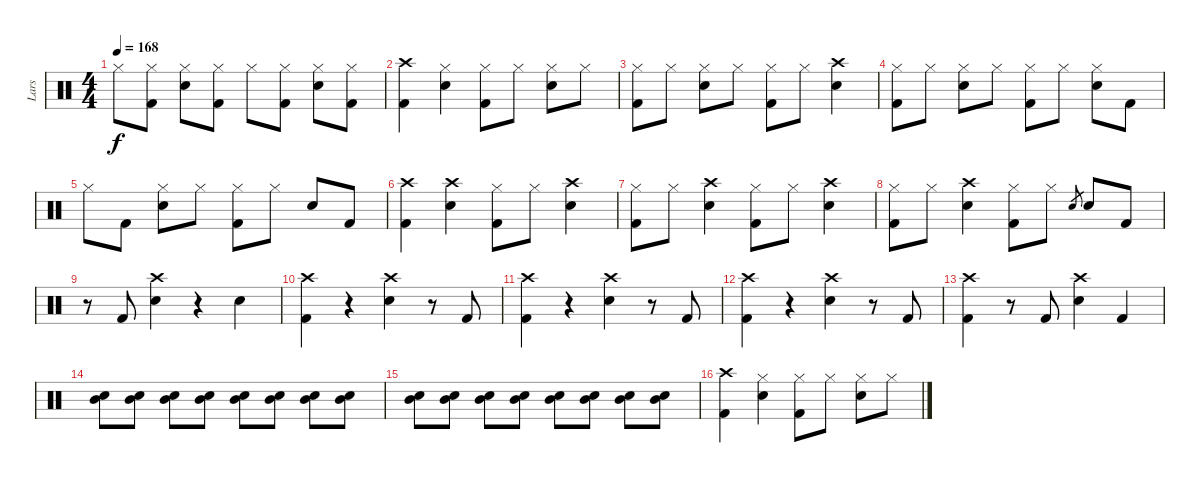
\track ("Lars" "Lars") {instrument percussion}
\staff {score}
\articulation defaults
\ts (4 4)
\tempo 168
\clef neutral
\ks c "Hi-Hat (closed)".8{dy f}
("Hi-Hat (closed)" "Kick (hit) 2").8 ("Hi-Hat (closed)" "Snare (hit) 2").8 ("Hi-Hat (closed)" "Kick (hit) 2").8 "Hi-Hat (closed)".8 ("Hi-Hat (closed)" "Kick (hit) 2").8 ("Hi-Hat (closed)" "Snare (hit) 2").8 ("Hi-Hat (closed)" "Kick (hit) 2").8 |
("Crash high (hit)" "Kick (hit) 2").4 ("Hi-Hat (closed)" "Snare (hit) 2").4 ("Hi-Hat (closed)" "Kick (hit) 2").8 "Hi-Hat (closed)".8 ("Hi-Hat (closed)" "Snare (hit) 2").8 "Hi-Hat (closed)".8 |
("Hi-Hat (closed)" "Kick (hit) 2").8 "Hi-Hat (closed)".8 ("Hi-Hat (closed)" "Snare (hit) 2").8 "Hi-Hat (closed)".8 ("Hi-Hat (closed)" "Kick (hit) 2").8 "Hi-Hat (closed)".8 ("Crash high (hit)" "Snare (hit) 2").4 |
("Hi-Hat (closed)" "Kick (hit) 2").8 "Hi-Hat (closed)".8 ("Hi-Hat (closed)" "Snare (hit) 2").8 "Hi-Hat (closed)".8 ("Hi-Hat (closed)" "Kick (hit) 2").8 "Hi-Hat (closed)".8 ("Hi-Hat (closed)" "Snare (hit) 2").8 "Kick (hit) 2".8 |
"Hi-Hat (closed)".8 "Kick (hit) 2".8 ("Hi-Hat (closed)" "Snare (hit) 2").8 "Hi-Hat (closed)".8 ("Hi-Hat (closed)" "Kick (hit) 2").8 "Hi-Hat (closed)".8 "Snare (hit) 2".8 "Kick (hit) 2".8 |
("Crash high (hit)" "Kick (hit) 2").4 ("Crash high (hit)" "Snare (hit) 2").4 ("Hi-Hat (closed)" "Kick (hit) 2").8 "Hi-Hat (closed)".8 ("Crash high (hit)" "Snare (hit) 2").4 |
("Hi-Hat (closed)" "Kick (hit) 2").8 "Hi-Hat (closed)".8 ("Crash high (hit)" "Snare (hit) 2").4 ("Hi-Hat (closed)" "Kick (hit) 2").8 "Hi-Hat (closed)".8 ("Crash high (hit)" "Snare (hit) 2").4 |
("Hi-Hat (closed)" "Kick (hit) 2").8 "Hi-Hat (closed)".8 ("Crash high (hit)" "Snare (hit) 2").4 ("Hi-Hat (closed)" "Kick (hit) 2").8 "Hi-Hat (closed)".8 "Snare (hit) 2".8{gr} "Snare (hit) 2".8 "Kick (hit) 2".8 |
r.8 "Kick (hit) 2".8 ("Crash high (hit)" "Snare (hit) 2").4 r.4 "Snare (hit) 2".4 |
("Crash high (hit)" "Kick (hit) 2").4 r.4 ("Crash high (hit)" "Snare (hit) 2").4 r.8 "Kick (hit) 2".8 |
("Crash high (hit)" "Kick (hit) 2").4 r.4 ("Crash high (hit)" "Snare (hit) 2").4 r.8 "Kick (hit) 2".8 |
("Crash high (hit)" "Kick (hit) 2").4 r.4 ("Crash high (hit)" "Snare (hit) 2").4 r.8 "Kick (hit) 2".8 |
("Crash high (hit)" "Kick (hit) 2").4 r.8 "Kick (hit) 2".8 ("Crash high (hit)" "Snare (hit) 2").4 "Kick (hit) 2".4 |
("Snare (hit) 2" "Mid Tom (hit)").8 ("Snare (hit) 2" "Mid Tom (hit)").8 ("Snare (hit) 2" "Mid Tom (hit)").8 ("Snare (hit) 2" "Mid Tom (hit)").8 ("Snare (hit) 2" "Mid Tom (hit)").8 ("Snare (hit) 2" "Mid Tom (hit)").8 ("Snare (hit) 2" "Mid Tom (hit)").8 ("Snare (hit) 2" "Mid Tom (hit)").8 |
("Snare (hit) 2" "Mid Tom (hit)").8 ("Snare (hit) 2" "Mid Tom (hit)").8 ("Snare (hit) 2" "Mid Tom (hit)").8 ("Snare (hit) 2" "Mid Tom (hit)").8 ("Snare (hit) 2" "Mid Tom (hit)").8 ("Snare (hit) 2" "Mid Tom (hit)").8 ("Snare (hit) 2" "Mid Tom (hit)").8 ("Snare (hit) 2" "Mid Tom (hit)").8 |
("Crash high (hit)" "Kick (hit) 2").4 ("Hi-Hat (closed)" "Snare (hit) 2").4 ("Hi-Hat (closed)" "Kick (hit) 2").8 "Hi-Hat (closed)".8 ("Hi-Hat (closed)" "Snare (hit) 2").8 "Hi-Hat (closed)".8
